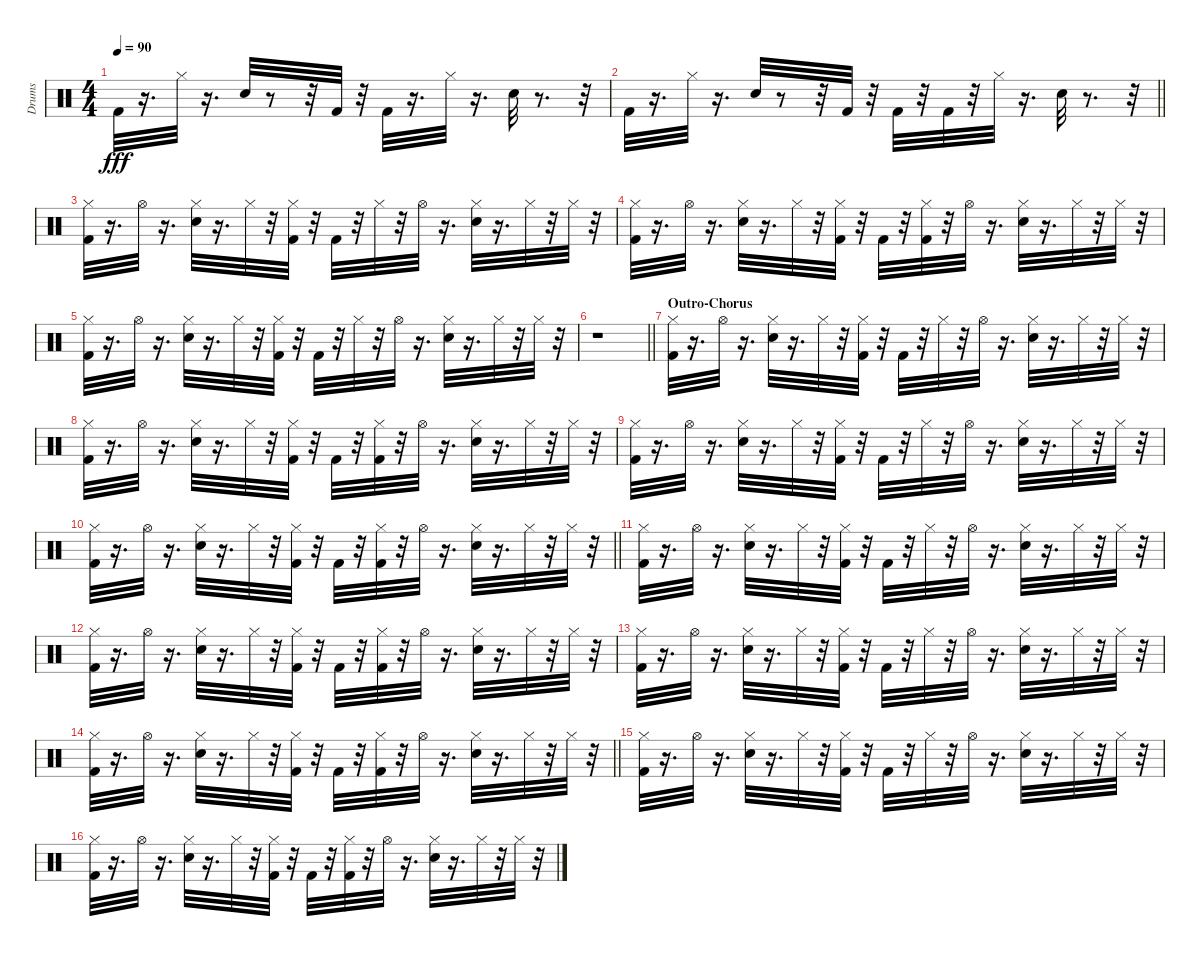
\track ("Drums" "Drums") {instrument percussion}
\staff {score}
\articulation defaults
\ts (4 4)
\tempo 90
\clef neutral
\ks c "Kick (hit) 2".32{dy fff}
r.16{d} "Hi-Hat (closed)".32 r.16{d} "Snare (hit) 2".32 r.8 r.32 "Kick (hit) 2".32 r.32 "Kick (hit) 2".32 r.16{d} "Hi-Hat (closed)".32 r.16{d} "Snare (hit) 2".32 r.8{d} r.32 |
\barLineRight lightlight "Kick (hit) 2".32
r.16{d} "Hi-Hat (closed)".32 r.16{d} "Snare (hit) 2".32 r.8 r.32 "Kick (hit) 2".32 r.32 "Kick (hit) 2".32 r.32 "Kick (hit) 2".32 r.32 "Hi-Hat (closed)".32 r.16{d} "Snare (hit) 2".32 r.8{d} r.32 |
("Hi-Hat (closed)" "Kick (hit) 2").32 r.16{d} "Hi-Hat (open)".32 r.16{d} ("Hi-Hat (closed)" "Snare (hit) 2").32 r.16{d} "Hi-Hat (closed)".32 r.32 ("Hi-Hat (closed)" "Kick (hit) 2").32 r.32 "Kick (hit) 2".32 r.32 "Hi-Hat (closed)".32 r.32 "Hi-Hat (open)".32 r.16{d} ("Hi-Hat (closed)" "Snare (hit) 2").32 r.16{d} "Hi-Hat (closed)".32 r.32 "Hi-Hat (closed)".32 r.32 |
("Kick (hit) 2" "Hi-Hat (closed)").32 r.16{d} "Hi-Hat (open)".32 r.16{d} ("Snare (hit) 2" "Hi-Hat (closed)").32 r.16{d} "Hi-Hat (closed)".32 r.32 ("Hi-Hat (closed)" "Kick (hit) 2").32 r.32 "Kick (hit) 2".32 r.32 ("Hi-Hat (closed)" "Kick (hit) 2").32 r.32 "Hi-Hat (open)".32 r.16{d} ("Hi-Hat (closed)" "Snare (hit) 2").32 r.16{d} "Hi-Hat (closed)".32 r.32 "Hi-Hat (closed)".32 r.32 |
("Kick (hit) 2" "Hi-Hat (closed)").32 r.16{d} "Hi-Hat (open)".32 r.16{d} ("Snare (hit) 2" "Hi-Hat (closed)").32 r.16{d} "Hi-Hat (closed)".32 r.32 ("Kick (hit) 2" "Hi-Hat (closed)").32 r.32 "Kick (hit) 2".32 r.32 "Hi-Hat (closed)".32 r.32 "Hi-Hat (open)".32 r.16{d} ("Snare (hit) 2" "Hi-Hat (closed)").32 r.16{d} "Hi-Hat (closed)".32 r.32 "Hi-Hat (closed)".32 r.32 |
\barLineRight lightlight
r.1 |
\section ("" "Outro-Chorus")
("Kick (hit) 2" "Hi-Hat (closed)").32 r.16{d} "Hi-Hat (open)".32 r.16{d} ("Hi-Hat (closed)" "Snare (hit) 2").32 r.16{d} "Hi-Hat (closed)".32 r.32 ("Kick (hit) 2" "Hi-Hat (closed)").32 r.32 "Kick (hit) 2".32 r.32 "Hi-Hat (closed)".32 r.32 "Hi-Hat (open)".32 r.16{d} ("Snare (hit) 2" "Hi-Hat (closed)").32 r.16{d} "Hi-Hat (closed)".32 r.32 "Hi-Hat (closed)".32 r.32 |
("Kick (hit) 2" "Hi-Hat (closed)").32 r.16{d} "Hi-Hat (open)".32 r.16{d} ("Hi-Hat (closed)" "Snare (hit) 2").32 r.16{d} "Hi-Hat (closed)".32 r.32 ("Hi-Hat (closed)" "Kick (hit) 2").32 r.32 "Kick (hit) 2".32 r.32 ("Kick (hit) 2" "Hi-Hat (closed)").32 r.32 "Hi-Hat (open)".32 r.16{d} ("Snare (hit) 2" "Hi-Hat (closed)").32 r.16{d} "Hi-Hat (closed)".32 r.32 "Hi-Hat (closed)".32 r.32 |
("Hi-Hat (closed)" "Kick (hit) 2").32 r.16{d} "Hi-Hat (open)".32 r.16{d} ("Snare (hit) 2" "Hi-Hat (closed)").32 r.16{d} "Hi-Hat (closed)".32 r.32 ("Hi-Hat (closed)" "Kick (hit) 2").32 r.32 "Kick (hit) 2".32 r.32 "Hi-Hat (closed)".32 r.32 "Hi-Hat (open)".32 r.16{d} ("Snare (hit) 2" "Hi-Hat (closed)").32 r.16{d} "Hi-Hat (closed)".32 r.32 "Hi-Hat (closed)".32 r.32 |
\barLineRight lightlight
("Hi-Hat (closed)" "Kick (hit) 2").32 r.16{d} "Hi-Hat (open)".32 r.16{d} ("Hi-Hat (closed)" "Snare (hit) 2").32 r.16{d} "Hi-Hat (closed)".32 r.32 ("Kick (hit) 2" "Hi-Hat (closed)").32 r.32 "Kick (hit) 2".32 r.32 ("Kick (hit) 2" "Hi-Hat (closed)").32 r.32 "Hi-Hat (open)".32 r.16{d} ("Snare (hit) 2" "Hi-Hat (closed)").32 r.16{d} "Hi-Hat (closed)".32 r.32 "Hi-Hat (closed)".32 r.32 |
("Kick (hit) 2" "Hi-Hat (closed)").32 r.16{d} "Hi-Hat (open)".32 r.16{d} ("Snare (hit) 2" "Hi-Hat (closed)").32 r.16{d} "Hi-Hat (closed)".32 r.32 ("Kick (hit) 2" "Hi-Hat (closed)").32 r.32 "Kick (hit) 2".32 r.32 "Hi-Hat (closed)".32 r.32 "Hi-Hat (open)".32 r.16{d} ("Snare (hit) 2" "Hi-Hat (closed)").32 r.16{d} "Hi-Hat (closed)".32 r.32 "Hi-Hat (closed)".32 r.32 |
("Kick (hit) 2" "Hi-Hat (closed)").32 r.16{d} "Hi-Hat (open)".32 r.16{d} ("Snare (hit) 2" "Hi-Hat (closed)").32 r.16{d} "Hi-Hat (closed)".32 r.32 ("Hi-Hat (closed)" "Kick (hit) 2").32 r.32 "Kick (hit) 2".32 r.32 ("Kick (hit) 2" "Hi-Hat (closed)").32 r.32 "Hi-Hat (open)".32 r.16{d} ("Snare (hit) 2" "Hi-Hat (closed)").32 r.16{d} "Hi-Hat (closed)".32 r.32 "Hi-Hat (closed)".32 r.32 |
("Hi-Hat (closed)" "Kick (hit) 2").32 r.16{d} "Hi-Hat (open)".32 r.16{d} ("Hi-Hat (closed)" "Snare (hit) 2").32 r.16{d} "Hi-Hat (closed)".32 r.32 ("Kick (hit) 2" "Hi-Hat (closed)").32 r.32 "Kick (hit) 2".32 r.32 "Hi-Hat (closed)".32 r.32 "Hi-Hat (open)".32 r.16{d} ("Hi-Hat (closed)" "Snare (hit) 2").32 r.16{d} "Hi-Hat (closed)".32 r.32 "Hi-Hat (closed)".32 r.32 |
\barLineRight lightlight
("Hi-Hat (closed)" "Kick (hit) 2").32 r.16{d} "Hi-Hat (open)".32 r.16{d} ("Snare (hit) 2" "Hi-Hat (closed)").32 r.16{d} "Hi-Hat (closed)".32 r.32 ("Kick (hit) 2" "Hi-Hat (closed)").32 r.32 "Kick (hit) 2".32 r.32 ("Kick (hit) 2" "Hi-Hat (closed)").32 r.32 "Hi-Hat (open)".32 r.16{d} ("Hi-Hat (closed)" "Snare (hit) 2").32 r.16{d} "Hi-Hat (closed)".32 r.32 "Hi-Hat (closed)".32 r.32 |
("Hi-Hat (closed)" "Kick (hit) 2").32 r.16{d} "Hi-Hat (open)".32 r.16{d} ("Snare (hit) 2" "Hi-Hat (closed)").32 r.16{d} "Hi-Hat (closed)".32 r.32 ("Kick (hit) 2" "Hi-Hat (closed)").32 r.32 "Kick (hit) 2".32 r.32 "Hi-Hat (closed)".32 r.32 "Hi-Hat (open)".32 r.16{d} ("Snare (hit) 2" "Hi-Hat (closed)").32 r.16{d} "Hi-Hat (closed)".32 r.32 "Hi-Hat (closed)".32 r.32 |
("Hi-Hat (closed)" "Kick (hit) 2").32 r.16{d} "Hi-Hat (open)".32 r.16{d} ("Snare (hit) 2" "Hi-Hat (closed)").32 r.16{d} "Hi-Hat (closed)".32 r.32 ("Kick (hit) 2" "Hi-Hat (closed)").32 r.32 "Kick (hit) 2".32 r.32 ("Kick (hit) 2" "Hi-Hat (closed)").32 r.32 "Hi-Hat (open)".32 r.16{d} ("Hi-Hat (closed)" "Snare (hit) 2").32 r.16{d} "Hi-Hat (closed)".32 r.32 "Hi-Hat (closed)".32 r.32
